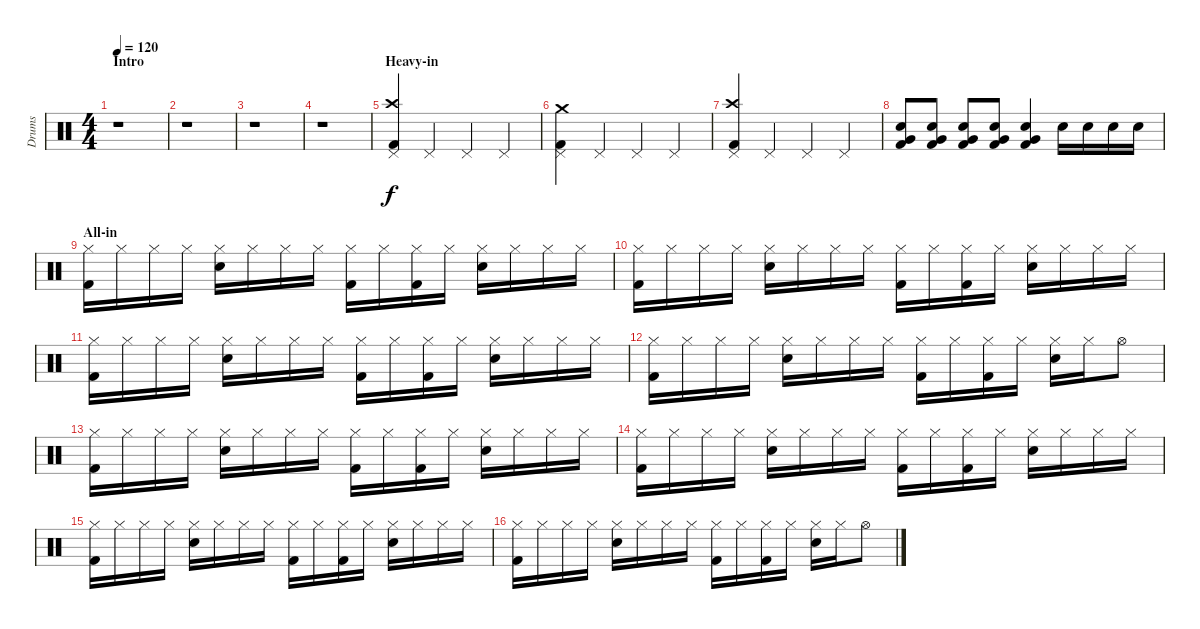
\track ("Drums" "Drums") {instrument percussion}
\staff {score}
\articulation defaults
\ts (4 4)
\section ("" "Intro")
\tempo 120
\clef neutral
\ks c
r.1{dy f} |
r.1 |
r.1 |
r.1 |
\section ("" "Heavy-in")
("Pedal Hi-Hat (hit)" "Crash high (hit)" "Kick (hit) 2").4 "Pedal Hi-Hat (hit)".4 "Pedal Hi-Hat (hit)".4 "Pedal Hi-Hat (hit)".4 |
("Pedal Hi-Hat (hit)" "Crash medium (hit)" "Kick (hit) 2").4 "Pedal Hi-Hat (hit)".4 "Pedal Hi-Hat (hit)".4 "Pedal Hi-Hat (hit)".4 |
("Pedal Hi-Hat (hit)" "Crash high (hit)" "Kick (hit) 2").4 "Pedal Hi-Hat (hit)".4 "Pedal Hi-Hat (hit)".4 "Pedal Hi-Hat (hit)".4 |
("Snare (hit) 2" "Very Low Tom (hit)" "Kick (hit) 2").8 ("Snare (hit) 2" "Very Low Tom (hit)" "Kick (hit) 2").8 ("Snare (hit) 2" "Very Low Tom (hit)" "Kick (hit) 2").8 ("Snare (hit) 2" "Very Low Tom (hit)" "Kick (hit) 2").8 ("Snare (hit) 2" "Very Low Tom (hit)" "Kick (hit) 2").4 "Snare (hit) 2".16 "Snare (hit) 2".16 "Snare (hit) 2".16 "Snare (hit) 2".16 |
\section ("" "All-in")
("Hi-Hat (closed)" "Kick (hit) 2").16 "Hi-Hat (closed)".16 "Hi-Hat (closed)".16 "Hi-Hat (closed)".16 ("Hi-Hat (closed)" "Snare (hit) 2").16 "Hi-Hat (closed)".16 "Hi-Hat (closed)".16 "Hi-Hat (closed)".16 ("Hi-Hat (closed)" "Kick (hit) 2").16 "Hi-Hat (closed)".16 ("Hi-Hat (closed)" "Kick (hit) 2").16 "Hi-Hat (closed)".16 ("Hi-Hat (closed)" "Snare (hit) 2").16 "Hi-Hat (closed)".16 "Hi-Hat (closed)".16 "Hi-Hat (closed)".16 |
("Hi-Hat (closed)" "Kick (hit) 2").16 "Hi-Hat (closed)".16 "Hi-Hat (closed)".16 "Hi-Hat (closed)".16 ("Hi-Hat (closed)" "Snare (hit) 2").16 "Hi-Hat (closed)".16 "Hi-Hat (closed)".16 "Hi-Hat (closed)".16 ("Hi-Hat (closed)" "Kick (hit) 2").16 "Hi-Hat (closed)".16 ("Hi-Hat (closed)" "Kick (hit) 2").16 "Hi-Hat (closed)".16 ("Hi-Hat (closed)" "Snare (hit) 2").16 "Hi-Hat (closed)".16 "Hi-Hat (closed)".16 "Hi-Hat (closed)".16 |
("Hi-Hat (closed)" "Kick (hit) 2").16 "Hi-Hat (closed)".16 "Hi-Hat (closed)".16 "Hi-Hat (closed)".16 ("Hi-Hat (closed)" "Snare (hit) 2").16 "Hi-Hat (closed)".16 "Hi-Hat (closed)".16 "Hi-Hat (closed)".16 ("Hi-Hat (closed)" "Kick (hit) 2").16 "Hi-Hat (closed)".16 ("Hi-Hat (closed)" "Kick (hit) 2").16 "Hi-Hat (closed)".16 ("Hi-Hat (closed)" "Snare (hit) 2").16 "Hi-Hat (closed)".16 "Hi-Hat (closed)".16 "Hi-Hat (closed)".16 |
("Hi-Hat (closed)" "Kick (hit) 2").16 "Hi-Hat (closed)".16 "Hi-Hat (closed)".16 "Hi-Hat (closed)".16 ("Hi-Hat (closed)" "Snare (hit) 2").16 "Hi-Hat (closed)".16 "Hi-Hat (closed)".16 "Hi-Hat (closed)".16 ("Hi-Hat (closed)" "Kick (hit) 2").16 "Hi-Hat (closed)".16 ("Hi-Hat (closed)" "Kick (hit) 2").16 "Hi-Hat (closed)".16 ("Hi-Hat (closed)" "Snare (hit) 2").16 "Hi-Hat (closed)".16 "Hi-Hat (open)".8 |
("Hi-Hat (closed)" "Kick (hit) 2").16 "Hi-Hat (closed)".16 "Hi-Hat (closed)".16 "Hi-Hat (closed)".16 ("Hi-Hat (closed)" "Snare (hit) 2").16 "Hi-Hat (closed)".16 "Hi-Hat (closed)".16 "Hi-Hat (closed)".16 ("Hi-Hat (closed)" "Kick (hit) 2").16 "Hi-Hat (closed)".16 ("Hi-Hat (closed)" "Kick (hit) 2").16 "Hi-Hat (closed)".16 ("Hi-Hat (closed)" "Snare (hit) 2").16 "Hi-Hat (closed)".16 "Hi-Hat (closed)".16 "Hi-Hat (closed)".16 |
("Hi-Hat (closed)" "Kick (hit) 2").16 "Hi-Hat (closed)".16 "Hi-Hat (closed)".16 "Hi-Hat (closed)".16 ("Hi-Hat (closed)" "Snare (hit) 2").16 "Hi-Hat (closed)".16 "Hi-Hat (closed)".16 "Hi-Hat (closed)".16 ("Hi-Hat (closed)" "Kick (hit) 2").16 "Hi-Hat (closed)".16 ("Hi-Hat (closed)" "Kick (hit) 2").16 "Hi-Hat (closed)".16 ("Hi-Hat (closed)" "Snare (hit) 2").16 "Hi-Hat (closed)".16 "Hi-Hat (closed)".16 "Hi-Hat (closed)".16 |
("Hi-Hat (closed)" "Kick (hit) 2").16 "Hi-Hat (closed)".16 "Hi-Hat (closed)".16 "Hi-Hat (closed)".16 ("Hi-Hat (closed)" "Snare (hit) 2").16 "Hi-Hat (closed)".16 "Hi-Hat (closed)".16 "Hi-Hat (closed)".16 ("Hi-Hat (closed)" "Kick (hit) 2").16 "Hi-Hat (closed)".16 ("Hi-Hat (closed)" "Kick (hit) 2").16 "Hi-Hat (closed)".16 ("Hi-Hat (closed)" "Snare (hit) 2").16 "Hi-Hat (closed)".16 "Hi-Hat (closed)".16 "Hi-Hat (closed)".16 |
("Hi-Hat (closed)" "Kick (hit) 2").16 "Hi-Hat (closed)".16 "Hi-Hat (closed)".16 "Hi-Hat (closed)".16 ("Hi-Hat (closed)" "Snare (hit) 2").16 "Hi-Hat (closed)".16 "Hi-Hat (closed)".16 "Hi-Hat (closed)".16 ("Hi-Hat (closed)" "Kick (hit) 2").16 "Hi-Hat (closed)".16 ("Hi-Hat (closed)" "Kick (hit) 2").16 "Hi-Hat (closed)".16 ("Hi-Hat (closed)" "Snare (hit) 2").16 "Hi-Hat (closed)".16 "Hi-Hat (open)".8
